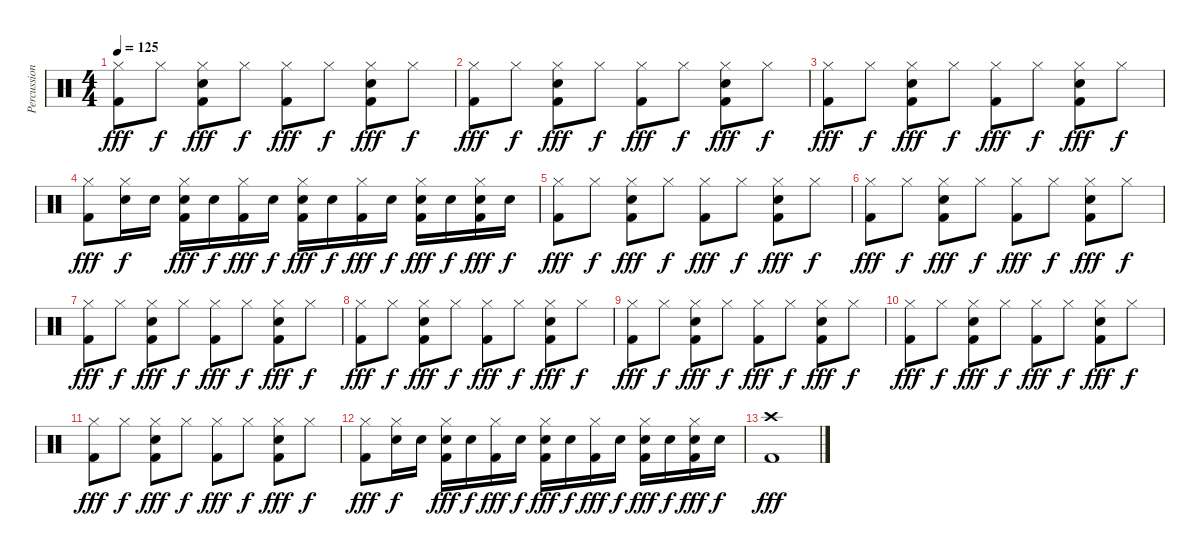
\track ("Percussion" "Percussion") {instrument percussion}
\staff {score}
\articulation defaults
\ts (4 4)
\tempo 125
\clef neutral
\ks c
("Hi-Hat (closed)" "Kick (hit) 2").8{dy fff} "Hi-Hat (closed)".8{dy f} ("Hi-Hat (closed)" "Kick (hit) 2" "Snare (hit) 2").8{dy fff} "Hi-Hat (closed)".8{dy f} ("Hi-Hat (closed)" "Kick (hit) 2").8{dy fff} "Hi-Hat (closed)".8{dy f} ("Hi-Hat (closed)" "Kick (hit) 2" "Snare (hit) 2").8{dy fff} "Hi-Hat (closed)".8{dy f} |
("Hi-Hat (closed)" "Kick (hit) 2").8{dy fff} "Hi-Hat (closed)".8{dy f} ("Hi-Hat (closed)" "Kick (hit) 2" "Snare (hit) 2").8{dy fff} "Hi-Hat (closed)".8{dy f} ("Hi-Hat (closed)" "Kick (hit) 2").8{dy fff} "Hi-Hat (closed)".8{dy f} ("Hi-Hat (closed)" "Kick (hit) 2" "Snare (hit) 2").8{dy fff} "Hi-Hat (closed)".8{dy f} |
("Hi-Hat (closed)" "Kick (hit) 2").8{dy fff} "Hi-Hat (closed)".8{dy f} ("Hi-Hat (closed)" "Kick (hit) 2" "Snare (hit) 2").8{dy fff} "Hi-Hat (closed)".8{dy f} ("Hi-Hat (closed)" "Kick (hit) 2").8{dy fff} "Hi-Hat (closed)".8{dy f} ("Hi-Hat (closed)" "Kick (hit) 2" "Snare (hit) 2").8{dy fff} "Hi-Hat (closed)".8{dy f} |
("Hi-Hat (closed)" "Kick (hit) 2").8{dy fff} ("Hi-Hat (closed)" "Snare (hit) 2").16{dy f} "Snare (hit) 2".16 ("Hi-Hat (closed)" "Kick (hit) 2" "Snare (hit) 2").16{dy fff} "Snare (hit) 2".16{dy f} ("Hi-Hat (closed)" "Kick (hit) 2").16{dy fff} "Snare (hit) 2".16{dy f} ("Hi-Hat (closed)" "Kick (hit) 2" "Snare (hit) 2").16{dy fff} "Snare (hit) 2".16{dy f} ("Hi-Hat (closed)" "Kick (hit) 2").16{dy fff} "Snare (hit) 2".16{dy f} ("Hi-Hat (closed)" "Kick (hit) 2" "Snare (hit) 2").16{dy fff} "Snare (hit) 2".16{dy f} ("Hi-Hat (closed)" "Kick (hit) 2" "Snare (hit) 2").16{dy fff} "Snare (hit) 2".16{dy f} |
("Hi-Hat (closed)" "Kick (hit) 2").8{dy fff} "Hi-Hat (closed)".8{dy f} ("Hi-Hat (closed)" "Kick (hit) 2" "Snare (hit) 2").8{dy fff} "Hi-Hat (closed)".8{dy f} ("Hi-Hat (closed)" "Kick (hit) 2").8{dy fff} "Hi-Hat (closed)".8{dy f} ("Hi-Hat (closed)" "Kick (hit) 2" "Snare (hit) 2").8{dy fff} "Hi-Hat (closed)".8{dy f} |
("Hi-Hat (closed)" "Kick (hit) 2").8{dy fff} "Hi-Hat (closed)".8{dy f} ("Hi-Hat (closed)" "Kick (hit) 2" "Snare (hit) 2").8{dy fff} "Hi-Hat (closed)".8{dy f} ("Hi-Hat (closed)" "Kick (hit) 2").8{dy fff} "Hi-Hat (closed)".8{dy f} ("Hi-Hat (closed)" "Kick (hit) 2" "Snare (hit) 2").8{dy fff} "Hi-Hat (closed)".8{dy f} |
("Hi-Hat (closed)" "Kick (hit) 2").8{dy fff} "Hi-Hat (closed)".8{dy f} ("Hi-Hat (closed)" "Kick (hit) 2" "Snare (hit) 2").8{dy fff} "Hi-Hat (closed)".8{dy f} ("Hi-Hat (closed)" "Kick (hit) 2").8{dy fff} "Hi-Hat (closed)".8{dy f} ("Hi-Hat (closed)" "Kick (hit) 2" "Snare (hit) 2").8{dy fff} "Hi-Hat (closed)".8{dy f} |
("Hi-Hat (closed)" "Kick (hit) 2").8{dy fff} "Hi-Hat (closed)".8{dy f} ("Hi-Hat (closed)" "Kick (hit) 2" "Snare (hit) 2").8{dy fff} "Hi-Hat (closed)".8{dy f} ("Hi-Hat (closed)" "Kick (hit) 2").8{dy fff} "Hi-Hat (closed)".8{dy f} ("Hi-Hat (closed)" "Kick (hit) 2" "Snare (hit) 2").8{dy fff} "Hi-Hat (closed)".8{dy f} |
("Hi-Hat (closed)" "Kick (hit) 2").8{dy fff} "Hi-Hat (closed)".8{dy f} ("Hi-Hat (closed)" "Kick (hit) 2" "Snare (hit) 2").8{dy fff} "Hi-Hat (closed)".8{dy f} ("Hi-Hat (closed)" "Kick (hit) 2").8{dy fff} "Hi-Hat (closed)".8{dy f} ("Hi-Hat (closed)" "Kick (hit) 2" "Snare (hit) 2").8{dy fff} "Hi-Hat (closed)".8{dy f} |
("Hi-Hat (closed)" "Kick (hit) 2").8{dy fff} "Hi-Hat (closed)".8{dy f} ("Hi-Hat (closed)" "Kick (hit) 2" "Snare (hit) 2").8{dy fff} "Hi-Hat (closed)".8{dy f} ("Hi-Hat (closed)" "Kick (hit) 2").8{dy fff} "Hi-Hat (closed)".8{dy f} ("Hi-Hat (closed)" "Kick (hit) 2" "Snare (hit) 2").8{dy fff} "Hi-Hat (closed)".8{dy f} |
("Hi-Hat (closed)" "Kick (hit) 2").8{dy fff} "Hi-Hat (closed)".8{dy f} ("Hi-Hat (closed)" "Kick (hit) 2" "Snare (hit) 2").8{dy fff} "Hi-Hat (closed)".8{dy f} ("Hi-Hat (closed)" "Kick (hit) 2").8{dy fff} "Hi-Hat (closed)".8{dy f} ("Hi-Hat (closed)" "Kick (hit) 2" "Snare (hit) 2").8{dy fff} "Hi-Hat (closed)".8{dy f} |
("Hi-Hat (closed)" "Kick (hit) 2").8{dy fff} ("Hi-Hat (closed)" "Snare (hit) 2").16{dy f} "Snare (hit) 2".16 ("Hi-Hat (closed)" "Kick (hit) 2" "Snare (hit) 2").16{dy fff} "Snare (hit) 2".16{dy f} ("Hi-Hat (closed)" "Kick (hit) 2").16{dy fff} "Snare (hit) 2".16{dy f} ("Hi-Hat (closed)" "Kick (hit) 2" "Snare (hit) 2").16{dy fff} "Snare (hit) 2".16{dy f} ("Hi-Hat (closed)" "Kick (hit) 2").16{dy fff} "Snare (hit) 2".16{dy f} ("Hi-Hat (closed)" "Kick (hit) 2" "Snare (hit) 2").16{dy fff} "Snare (hit) 2".16{dy f} ("Hi-Hat (closed)" "Kick (hit) 2" "Snare (hit) 2").16{dy fff} "Snare (hit) 2".16{dy f} |
("Kick (hit) 2" "Crash high (hit)").1{dy fff}
